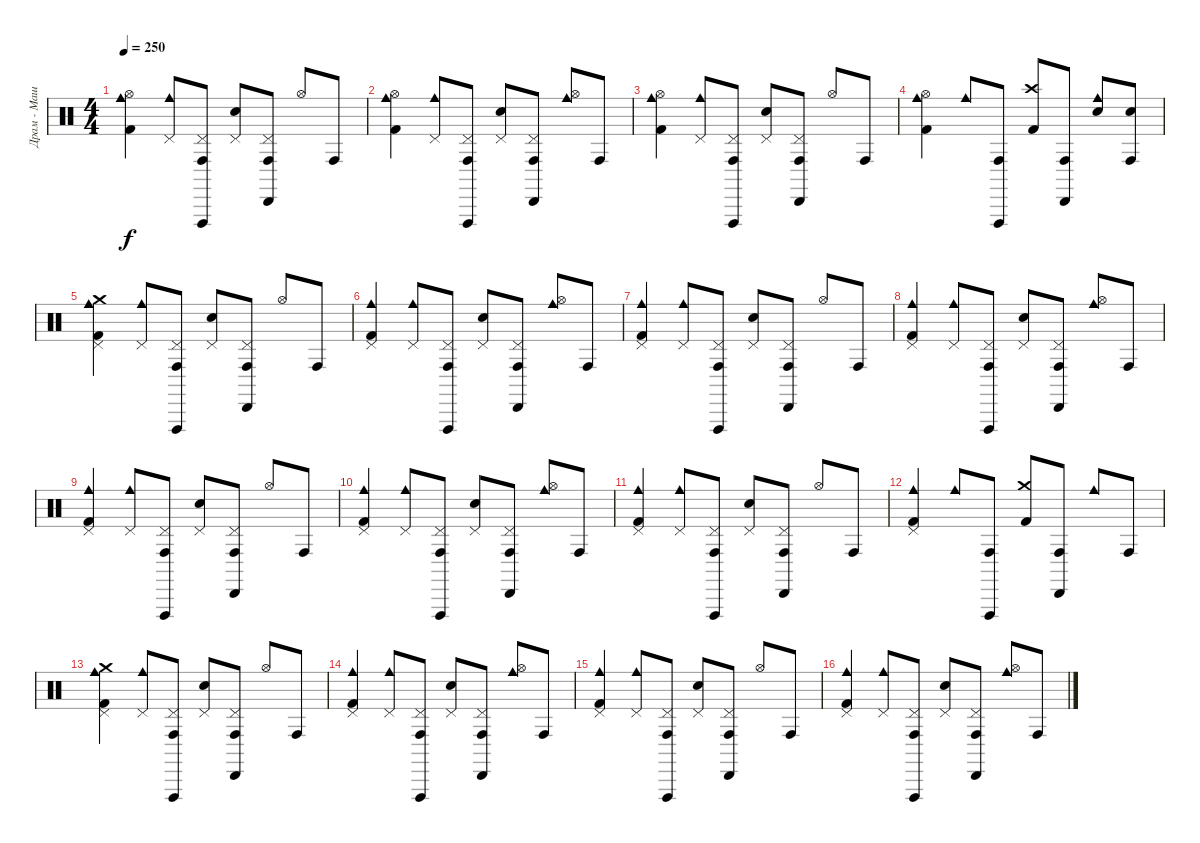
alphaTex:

\track ("Драм - Машина" "Драм - Маш") {instrument percussion}
\staff {score}
\articulation defaults
\ts (4 4)
\tempo 250
\clef neutral
\ks c
("Cowbell medium (hit)" "Hi-Hat (open)" "Kick (hit) 2").4{dy f} ("Cowbell medium (hit)" "Pedal Hi-Hat (hit)").8 ("Conga high (hit)" "Vibraslap (hit)" "Pedal Hi-Hat (hit)").8 ("Pedal Hi-Hat (hit)" "Snare (hit) 2").8 ("Cabasa (hit)" "Conga high (hit)" "Pedal Hi-Hat (hit)").8 "Hi-Hat (open)".8 "Conga high (hit)".8 |
("Cowbell medium (hit)" "Hi-Hat (open)" "Kick (hit) 2").4 ("Cowbell medium (hit)" "Pedal Hi-Hat (hit)").8 ("Conga high (hit)" "Vibraslap (hit)" "Pedal Hi-Hat (hit)").8 ("Pedal Hi-Hat (hit)" "Snare (hit) 2").8 ("Cabasa (hit)" "Conga high (hit)" "Pedal Hi-Hat (hit)").8 ("Cowbell medium (hit)" "Hi-Hat (open)").8 "Conga high (hit)".8 |
("Cowbell medium (hit)" "Hi-Hat (open)" "Kick (hit) 2").4 ("Cowbell medium (hit)" "Pedal Hi-Hat (hit)").8 ("Conga high (hit)" "Vibraslap (hit)" "Pedal Hi-Hat (hit)").8 ("Pedal Hi-Hat (hit)" "Snare (hit) 2").8 ("Cabasa (hit)" "Conga high (hit)" "Pedal Hi-Hat (hit)").8 "Hi-Hat (open)".8 "Conga high (hit)".8 |
("Cowbell medium (hit)" "Hi-Hat (open)" "Kick (hit) 2").4 "Cowbell medium (hit)".8 ("Conga high (hit)" "Vibraslap (hit)").8 ("Crash high (hit)" "Kick (hit) 2").8 ("Cabasa (hit)" "Conga high (hit)").8 ("Cowbell medium (hit)" "Electric Snare (hit)").8 ("Conga high (hit)" "Electric Snare (hit)").8 |
("Cowbell medium (hit)" "Crash medium (hit)" "Pedal Hi-Hat (hit)" "Kick (hit) 2").4 ("Cowbell medium (hit)" "Pedal Hi-Hat (hit)").8 ("Conga high (hit)" "Vibraslap (hit)" "Pedal Hi-Hat (hit)").8 ("Pedal Hi-Hat (hit)" "Snare (hit) 2").8 ("Cabasa (hit)" "Conga high (hit)" "Pedal Hi-Hat (hit)").8 "Hi-Hat (open)".8 "Conga high (hit)".8 |
("Cowbell medium (hit)" "Pedal Hi-Hat (hit)" "Kick (hit) 2").4 ("Cowbell medium (hit)" "Pedal Hi-Hat (hit)").8 ("Conga high (hit)" "Vibraslap (hit)" "Pedal Hi-Hat (hit)").8 ("Pedal Hi-Hat (hit)" "Snare (hit) 2").8 ("Cabasa (hit)" "Conga high (hit)" "Pedal Hi-Hat (hit)").8 ("Cowbell medium (hit)" "Hi-Hat (open)").8 "Conga high (hit)".8 |
("Cowbell medium (hit)" "Pedal Hi-Hat (hit)" "Kick (hit) 2").4 ("Cowbell medium (hit)" "Pedal Hi-Hat (hit)").8 ("Conga high (hit)" "Vibraslap (hit)" "Pedal Hi-Hat (hit)").8 ("Pedal Hi-Hat (hit)" "Snare (hit) 2").8 ("Cabasa (hit)" "Conga high (hit)" "Pedal Hi-Hat (hit)").8 "Hi-Hat (open)".8 "Conga high (hit)".8 |
("Cowbell medium (hit)" "Pedal Hi-Hat (hit)" "Kick (hit) 2").4 ("Cowbell medium (hit)" "Pedal Hi-Hat (hit)").8 ("Conga high (hit)" "Vibraslap (hit)" "Pedal Hi-Hat (hit)").8 ("Pedal Hi-Hat (hit)" "Snare (hit) 2").8 ("Cabasa (hit)" "Conga high (hit)" "Pedal Hi-Hat (hit)").8 ("Cowbell medium (hit)" "Hi-Hat (open)").8 "Conga high (hit)".8 |
("Cowbell medium (hit)" "Pedal Hi-Hat (hit)" "Kick (hit) 2").4 ("Cowbell medium (hit)" "Pedal Hi-Hat (hit)").8 ("Conga high (hit)" "Vibraslap (hit)" "Pedal Hi-Hat (hit)").8 ("Pedal Hi-Hat (hit)" "Snare (hit) 2").8 ("Cabasa (hit)" "Conga high (hit)" "Pedal Hi-Hat (hit)").8 "Hi-Hat (open)".8 "Conga high (hit)".8 |
("Cowbell medium (hit)" "Pedal Hi-Hat (hit)" "Kick (hit) 2").4 ("Cowbell medium (hit)" "Pedal Hi-Hat (hit)").8 ("Conga high (hit)" "Vibraslap (hit)" "Pedal Hi-Hat (hit)").8 ("Pedal Hi-Hat (hit)" "Snare (hit) 2").8 ("Cabasa (hit)" "Conga high (hit)" "Pedal Hi-Hat (hit)").8 ("Cowbell medium (hit)" "Hi-Hat (open)").8 "Conga high (hit)".8 |
("Cowbell medium (hit)" "Pedal Hi-Hat (hit)" "Kick (hit) 2").4 ("Cowbell medium (hit)" "Pedal Hi-Hat (hit)").8 ("Conga high (hit)" "Vibraslap (hit)" "Pedal Hi-Hat (hit)").8 ("Pedal Hi-Hat (hit)" "Snare (hit) 2").8 ("Cabasa (hit)" "Conga high (hit)" "Pedal Hi-Hat (hit)").8 "Hi-Hat (open)".8 "Conga high (hit)".8 |
("Cowbell medium (hit)" "Pedal Hi-Hat (hit)" "Kick (hit) 2").4 "Cowbell medium (hit)".8 ("Conga high (hit)" "Vibraslap (hit)").8 ("Crash medium (hit)" "Kick (hit) 2").8 ("Cabasa (hit)" "Conga high (hit)").8 "Cowbell medium (hit)".8 "Conga high (hit)".8 |
("Cowbell medium (hit)" "Crash medium (hit)" "Pedal Hi-Hat (hit)" "Kick (hit) 2").4 ("Cowbell medium (hit)" "Pedal Hi-Hat (hit)").8 ("Conga high (hit)" "Vibraslap (hit)" "Pedal Hi-Hat (hit)").8 ("Pedal Hi-Hat (hit)" "Snare (hit) 2").8 ("Cabasa (hit)" "Conga high (hit)" "Pedal Hi-Hat (hit)").8 "Hi-Hat (open)".8 "Conga high (hit)".8 |
("Cowbell medium (hit)" "Pedal Hi-Hat (hit)" "Kick (hit) 2").4 ("Cowbell medium (hit)" "Pedal Hi-Hat (hit)").8 ("Conga high (hit)" "Vibraslap (hit)" "Pedal Hi-Hat (hit)").8 ("Pedal Hi-Hat (hit)" "Snare (hit) 2").8 ("Cabasa (hit)" "Conga high (hit)" "Pedal Hi-Hat (hit)").8 ("Cowbell medium (hit)" "Hi-Hat (open)").8 "Conga high (hit)".8 |
("Cowbell medium (hit)" "Pedal Hi-Hat (hit)" "Kick (hit) 2").4 ("Cowbell medium (hit)" "Pedal Hi-Hat (hit)").8 ("Conga high (hit)" "Vibraslap (hit)" "Pedal Hi-Hat (hit)").8 ("Pedal Hi-Hat (hit)" "Snare (hit) 2").8 ("Cabasa (hit)" "Conga high (hit)" "Pedal Hi-Hat (hit)").8 "Hi-Hat (open)".8 "Conga high (hit)".8 |
("Cowbell medium (hit)" "Pedal Hi-Hat (hit)" "Kick (hit) 2").4 ("Cowbell medium (hit)" "Pedal Hi-Hat (hit)").8 ("Conga high (hit)" "Vibraslap (hit)" "Pedal Hi-Hat (hit)").8 ("Pedal Hi-Hat (hit)" "Snare (hit) 2").8 ("Cabasa (hit)" "Conga high (hit)" "Pedal Hi-Hat (hit)").8 ("Cowbell medium (hit)" "Hi-Hat (open)").8 "Conga high (hit)".8
